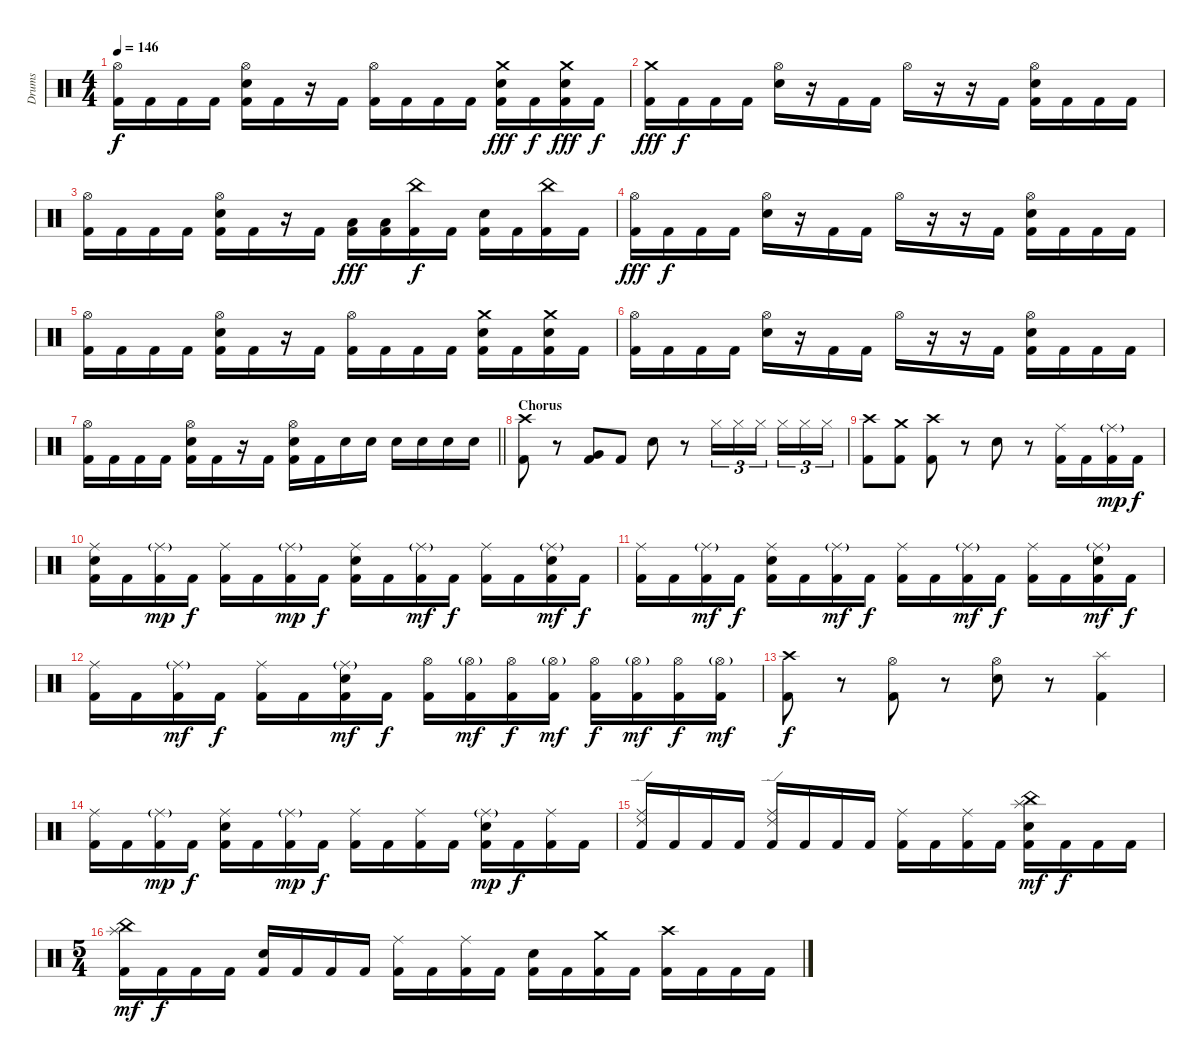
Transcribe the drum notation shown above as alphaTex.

\track ("Drums" "Drums") {instrument percussion}
\staff {score}
\articulation defaults
\ts (4 4)
\tempo 146
\clef neutral
\ks c
("Hi-Hat (open)" "Kick (hit) 2").16{dy f} "Kick (hit) 2".16 "Kick (hit) 2".16 "Kick (hit) 2".16 ("Hi-Hat (open)" "Electric Snare (hit)" "Kick (hit) 2").16 "Kick (hit) 2".16 r.16 "Kick (hit) 2".16 ("Hi-Hat (open)" "Kick (hit) 2").16 "Kick (hit) 2".16 "Kick (hit) 2".16 "Kick (hit) 2".16 ("Crash medium (hit)" "Electric Snare (hit)" "Kick (hit) 2").16{dy fff} "Kick (hit) 2".16{dy f} ("Crash medium (hit)" "Electric Snare (hit)" "Kick (hit) 2").16{dy fff} "Kick (hit) 2".16{dy f} |
("Crash medium (hit)" "Kick (hit) 2").16{dy fff} "Kick (hit) 2".16{dy f} "Kick (hit) 2".16 "Kick (hit) 2".16 ("Hi-Hat (open)" "Electric Snare (hit)").16 r.16 "Kick (hit) 2".16 "Kick (hit) 2".16 "Hi-Hat (open)".16 r.16 r.16 "Kick (hit) 2".16 ("Hi-Hat (open)" "Electric Snare (hit)" "Kick (hit) 2").16 "Kick (hit) 2".16 "Kick (hit) 2".16 "Kick (hit) 2".16 |
("Hi-Hat (open)" "Kick (hit) 2").16 "Kick (hit) 2".16 "Kick (hit) 2".16 "Kick (hit) 2".16 ("Hi-Hat (open)" "Electric Snare (hit)" "Kick (hit) 2").16 "Kick (hit) 2".16 r.16 "Kick (hit) 2".16 ("Low Tom (hit)" "Kick (hit) 2").16{dy fff} ("Low Tom (hit)" "Kick (hit) 2").16 ("China (hit)" "Kick (hit) 2").16{dy f} "Kick (hit) 2".16 ("Electric Snare (hit)" "Kick (hit) 2").16 "Kick (hit) 2".16 ("China (hit)" "Kick (hit) 2").16 "Kick (hit) 2".16 |
("Hi-Hat (open)" "Kick (hit) 2").16{dy fff} "Kick (hit) 2".16{dy f} "Kick (hit) 2".16 "Kick (hit) 2".16 ("Hi-Hat (open)" "Electric Snare (hit)").16 r.16 "Kick (hit) 2".16 "Kick (hit) 2".16 "Hi-Hat (open)".16 r.16 r.16 "Kick (hit) 2".16 ("Hi-Hat (open)" "Electric Snare (hit)" "Kick (hit) 2").16 "Kick (hit) 2".16 "Kick (hit) 2".16 "Kick (hit) 2".16 |
("Hi-Hat (open)" "Kick (hit) 2").16 "Kick (hit) 2".16 "Kick (hit) 2".16 "Kick (hit) 2".16 ("Hi-Hat (open)" "Electric Snare (hit)" "Kick (hit) 2").16 "Kick (hit) 2".16 r.16 "Kick (hit) 2".16 ("Hi-Hat (open)" "Kick (hit) 2").16 "Kick (hit) 2".16 "Kick (hit) 2".16 "Kick (hit) 2".16 ("Crash medium (hit)" "Electric Snare (hit)" "Kick (hit) 2").16 "Kick (hit) 2".16 ("Crash medium (hit)" "Electric Snare (hit)" "Kick (hit) 2").16 "Kick (hit) 2".16 |
("Hi-Hat (open)" "Kick (hit) 2").16 "Kick (hit) 2".16 "Kick (hit) 2".16 "Kick (hit) 2".16 ("Hi-Hat (open)" "Electric Snare (hit)").16 r.16 "Kick (hit) 2".16 "Kick (hit) 2".16 "Hi-Hat (open)".16 r.16 r.16 "Kick (hit) 2".16 ("Hi-Hat (open)" "Electric Snare (hit)" "Kick (hit) 2").16 "Kick (hit) 2".16 "Kick (hit) 2".16 "Kick (hit) 2".16 |
\barLineRight lightlight
("Hi-Hat (open)" "Kick (hit) 2").16 "Kick (hit) 2".16 "Kick (hit) 2".16 "Kick (hit) 2".16 ("Hi-Hat (open)" "Electric Snare (hit)" "Kick (hit) 2").16 "Kick (hit) 2".16 r.16 "Kick (hit) 2".16 ("Hi-Hat (open)" "Electric Snare (hit)" "Kick (hit) 2").16 "Kick (hit) 2".16 "Electric Snare (hit)".16 "Electric Snare (hit)".16 "Electric Snare (hit)".16 "Electric Snare (hit)".16 "Electric Snare (hit)".16 "Electric Snare (hit)".16 |
\section ("" "Chorus")
("Crash high (hit)" "Kick (hit) 2").8 r.8 ("Very Low Tom (hit)" "Kick (hit) 2").8 "Kick (hit) 2".8 "Electric Snare (hit)".8 r.8 "Hi-Hat (closed)".16{tu (3 2)} "Hi-Hat (closed)".16{tu (3 2)} "Hi-Hat (closed)".16{tu (3 2) beam splitsecondary} "Hi-Hat (closed)".16{tu (3 2)} "Hi-Hat (closed)".16{tu (3 2)} "Hi-Hat (closed)".16{tu (3 2)} |
("Crash high (hit)" "Kick (hit) 2").8 ("Crash medium (hit)" "Kick (hit) 2").8 ("Crash high (hit)" "Kick (hit) 2").8 r.8 "Electric Snare (hit)".8 r.8 ("Ride (middle)" "Kick (hit) 2").16 "Kick (hit) 2".16 ("Ride (middle)"{g} "Kick (hit) 2").16{dy mp} "Kick (hit) 2".16{dy f} |
("Ride (middle)" "Electric Snare (hit)" "Kick (hit) 2").16 "Kick (hit) 2".16 ("Ride (middle)"{g} "Kick (hit) 2").16{dy mp} "Kick (hit) 2".16{dy f} ("Ride (middle)" "Kick (hit) 2").16 "Kick (hit) 2".16 ("Ride (middle)"{g} "Kick (hit) 2").16{dy mp} "Kick (hit) 2".16{dy f} ("Ride (middle)" "Electric Snare (hit)" "Kick (hit) 2").16 "Kick (hit) 2".16 ("Ride (middle)"{g} "Kick (hit) 2").16{dy mf} "Kick (hit) 2".16{dy f} ("Ride (middle)" "Kick (hit) 2").16 "Kick (hit) 2".16 ("Ride (middle)"{g} "Electric Snare (hit)" "Kick (hit) 2").16{dy mf} "Kick (hit) 2".16{dy f} |
("Ride (middle)" "Kick (hit) 2").16 "Kick (hit) 2".16 ("Ride (middle)"{g} "Kick (hit) 2").16{dy mf} "Kick (hit) 2".16{dy f} ("Ride (middle)" "Electric Snare (hit)" "Kick (hit) 2").16 "Kick (hit) 2".16 ("Ride (middle)"{g} "Kick (hit) 2").16{dy mf} "Kick (hit) 2".16{dy f} ("Ride (middle)" "Kick (hit) 2").16 "Kick (hit) 2".16 ("Ride (middle)"{g} "Kick (hit) 2").16{dy mf} "Kick (hit) 2".16{dy f} ("Ride (middle)" "Kick (hit) 2").16 "Kick (hit) 2".16 ("Ride (middle)"{g} "Electric Snare (hit)" "Kick (hit) 2").16{dy mf} "Kick (hit) 2".16{dy f} |
("Ride (middle)" "Kick (hit) 2").16 "Kick (hit) 2".16 ("Ride (middle)"{g} "Kick (hit) 2").16{dy mf} "Kick (hit) 2".16{dy f} ("Ride (middle)" "Kick (hit) 2").16 "Kick (hit) 2".16 ("Ride (middle)"{g} "Electric Snare (hit)" "Kick (hit) 2").16{dy mf} "Kick (hit) 2".16{dy f} ("Hi-Hat (open)" "Kick (hit) 2").16 ("Hi-Hat (open)"{g} "Kick (hit) 2").16{dy mf} ("Hi-Hat (open)" "Kick (hit) 2").16{dy f} ("Hi-Hat (open)"{g} "Kick (hit) 2").16{dy mf} ("Hi-Hat (open)" "Kick (hit) 2").16{dy f} ("Hi-Hat (open)"{g} "Kick (hit) 2").16{dy mf} ("Hi-Hat (open)" "Kick (hit) 2").16{dy f} ("Hi-Hat (open)"{g} "Kick (hit) 2").16{dy mf} |
("Crash high (hit)" "Kick (hit) 2").8{dy f} r.8 ("Hi-Hat (open)" "Kick (hit) 2").8 r.8 ("Hi-Hat (open)" "Electric Snare (hit)").8 r.8 ("Splash (hit)" "Kick (hit) 2").4 |
("Ride (middle)" "Kick (hit) 2").16 "Kick (hit) 2".16 ("Ride (middle)"{g} "Kick (hit) 2").16{dy mp} "Kick (hit) 2".16{dy f} ("Ride (middle)" "Electric Snare (hit)" "Kick (hit) 2").16 "Kick (hit) 2".16 ("Ride (middle)"{g} "Kick (hit) 2").16{dy mp} "Kick (hit) 2".16{dy f} ("Ride (middle)" "Kick (hit) 2").16 "Kick (hit) 2".16 ("Ride (middle)" "Kick (hit) 2").16 "Kick (hit) 2".16 ("Ride (middle)"{g} "Electric Snare (hit)" "Kick (hit) 2").16{dy mp} "Kick (hit) 2".16{dy f} ("Ride (middle)" "Kick (hit) 2").16 "Kick (hit) 2".16 |
("Ride (middle)" "Ride (edge) 2" "Kick (hit) 2").16 "Kick (hit) 2".16 "Kick (hit) 2".16 "Kick (hit) 2".16 ("Ride (middle)" "Ride (edge) 2" "Kick (hit) 2").16 "Kick (hit) 2".16 "Kick (hit) 2".16 "Kick (hit) 2".16 ("Ride (middle)" "Kick (hit) 2").16 "Kick (hit) 2".16 ("Ride (middle)" "Kick (hit) 2").16 "Kick (hit) 2".16 ("China (hit)" "Splash (hit)" "Electric Snare (hit)" "Kick (hit) 2").16{dy mf} "Kick (hit) 2".16{dy f} "Kick (hit) 2".16 "Kick (hit) 2".16 |
\ts (5 4)
("China (hit)" "Splash (hit)" "Kick (hit) 2").16{dy mf} "Kick (hit) 2".16{dy f} "Kick (hit) 2".16 "Kick (hit) 2".16 ("Electric Snare (hit)" "Kick (hit) 2").16 "Kick (hit) 2".16 "Kick (hit) 2".16 "Kick (hit) 2".16 ("Ride (middle)" "Kick (hit) 2").16 "Kick (hit) 2".16 ("Ride (middle)" "Kick (hit) 2").16 "Kick (hit) 2".16 ("Electric Snare (hit)" "Kick (hit) 2").16 "Kick (hit) 2".16 ("Crash medium (hit)" "Kick (hit) 2").16 "Kick (hit) 2".16 ("Crash high (hit)" "Kick (hit) 2").16 "Kick (hit) 2".16 "Kick (hit) 2".16 "Kick (hit) 2".16
